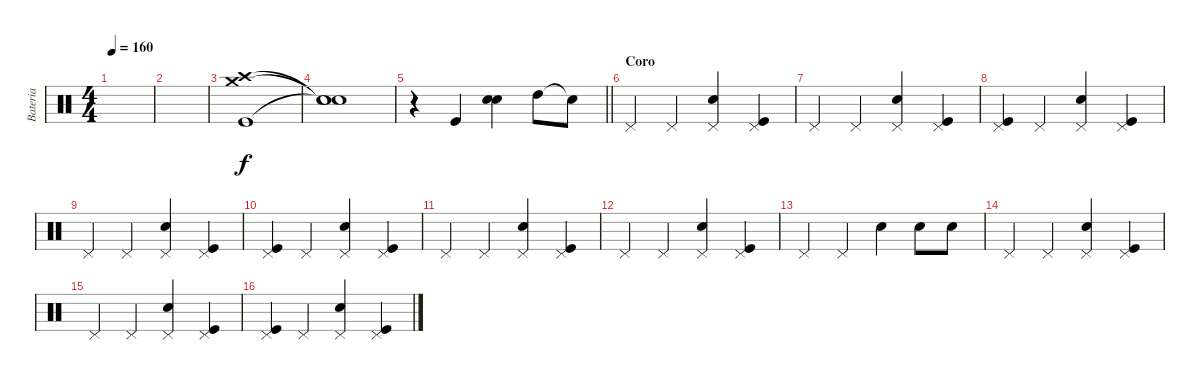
\track ("Bateria" "Bateria") {instrument percussion}
\staff {score}
\articulation defaults
\ts (4 4)
\tempo 160
\clef neutral
\ks c
|
|
("Crash medium (hit)" "Kick (hit)" "Crash high (hit)").1 |
("Snare (hit)"{t} "Snare (hit)"{t} "Snare (hit)"{t}).1 |
\barLineRight lightlight
r.4 "Kick (hit)".4 ("Snare (hit) 2" "Snare (hit) 2").4 "High Tom (hit)".8 "Snare (hit)"{t}.8 |
\section ("" "Coro")
"Pedal Hi-Hat (hit)".4 "Pedal Hi-Hat (hit)".4 ("Snare (hit) 2" "Pedal Hi-Hat (hit)").4 ("Kick (hit)" "Pedal Hi-Hat (hit)").4 |
"Pedal Hi-Hat (hit)".4 "Pedal Hi-Hat (hit)".4 ("Snare (hit) 2" "Pedal Hi-Hat (hit)").4 ("Kick (hit)" "Pedal Hi-Hat (hit)").4 |
("Kick (hit)" "Pedal Hi-Hat (hit)").4 "Pedal Hi-Hat (hit)".4 ("Snare (hit) 2" "Pedal Hi-Hat (hit)").4 ("Kick (hit)" "Pedal Hi-Hat (hit)").4 |
"Pedal Hi-Hat (hit)".4 "Pedal Hi-Hat (hit)".4 ("Snare (hit) 2" "Pedal Hi-Hat (hit)").4 ("Kick (hit)" "Pedal Hi-Hat (hit)").4 |
("Kick (hit)" "Pedal Hi-Hat (hit)").4 "Pedal Hi-Hat (hit)".4 ("Snare (hit) 2" "Pedal Hi-Hat (hit)").4 ("Kick (hit)" "Pedal Hi-Hat (hit)").4 |
"Pedal Hi-Hat (hit)".4 "Pedal Hi-Hat (hit)".4 ("Snare (hit) 2" "Pedal Hi-Hat (hit)").4 ("Kick (hit)" "Pedal Hi-Hat (hit)").4 |
"Pedal Hi-Hat (hit)".4 "Pedal Hi-Hat (hit)".4 ("Snare (hit) 2" "Pedal Hi-Hat (hit)").4 ("Kick (hit)" "Pedal Hi-Hat (hit)").4 |
"Pedal Hi-Hat (hit)".4 "Pedal Hi-Hat (hit)".4 "Snare (hit) 2".4 "Snare (hit) 2".8 "Snare (hit) 2".8 |
"Pedal Hi-Hat (hit)".4 "Pedal Hi-Hat (hit)".4 ("Snare (hit) 2" "Pedal Hi-Hat (hit)").4 ("Kick (hit)" "Pedal Hi-Hat (hit)").4 |
"Pedal Hi-Hat (hit)".4 "Pedal Hi-Hat (hit)".4 ("Snare (hit) 2" "Pedal Hi-Hat (hit)").4 ("Kick (hit)" "Pedal Hi-Hat (hit)").4 |
("Kick (hit)" "Pedal Hi-Hat (hit)").4 "Pedal Hi-Hat (hit)".4 ("Snare (hit) 2" "Pedal Hi-Hat (hit)").4 ("Kick (hit)" "Pedal Hi-Hat (hit)").4
